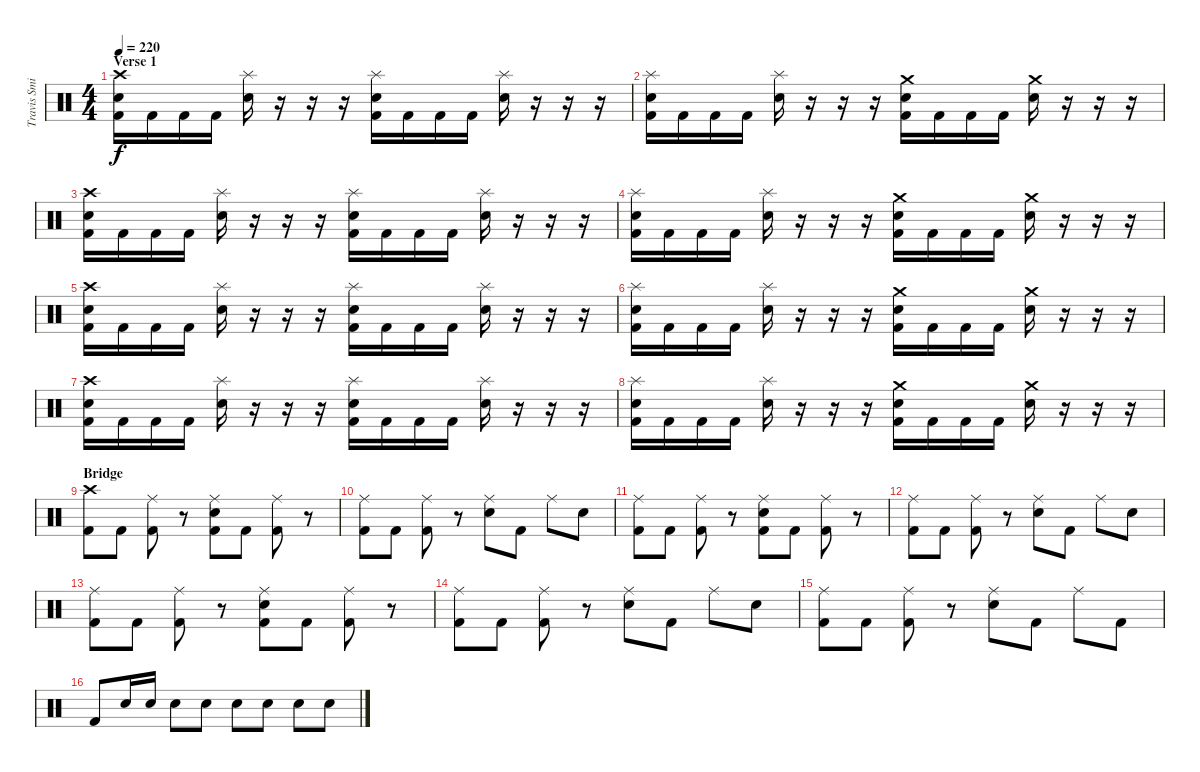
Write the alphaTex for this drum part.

\track ("Travis Smith" "Travis Smi") {instrument percussion}
\staff {score}
\articulation defaults
\ts (4 4)
\section ("" "Verse 1")
\tempo 220
\clef neutral
\ks c
("Crash high (hit)" "Electric Snare (hit)" "Kick (hit) 2").16{dy f} "Kick (hit) 2".16 "Kick (hit) 2".16 "Kick (hit) 2".16 ("Splash (hit)" "Electric Snare (hit)").16 r.16 r.16 r.16 ("Splash (hit)" "Electric Snare (hit)" "Kick (hit) 2").16 "Kick (hit) 2".16 "Kick (hit) 2".16 "Kick (hit) 2".16 ("Splash (hit)" "Electric Snare (hit)").16 r.16 r.16 r.16 |
("Splash (hit)" "Electric Snare (hit)" "Kick (hit) 2").16 "Kick (hit) 2".16 "Kick (hit) 2".16 "Kick (hit) 2".16 ("Splash (hit)" "Electric Snare (hit)").16 r.16 r.16 r.16 ("Crash medium (hit)" "Electric Snare (hit)" "Kick (hit) 2").16 "Kick (hit) 2".16 "Kick (hit) 2".16 "Kick (hit) 2".16 ("Crash medium (hit)" "Electric Snare (hit)").16 r.16 r.16 r.16 |
("Crash high (hit)" "Electric Snare (hit)" "Kick (hit) 2").16 "Kick (hit) 2".16 "Kick (hit) 2".16 "Kick (hit) 2".16 ("Splash (hit)" "Electric Snare (hit)").16 r.16 r.16 r.16 ("Splash (hit)" "Electric Snare (hit)" "Kick (hit) 2").16 "Kick (hit) 2".16 "Kick (hit) 2".16 "Kick (hit) 2".16 ("Splash (hit)" "Electric Snare (hit)").16 r.16 r.16 r.16 |
("Splash (hit)" "Electric Snare (hit)" "Kick (hit) 2").16 "Kick (hit) 2".16 "Kick (hit) 2".16 "Kick (hit) 2".16 ("Splash (hit)" "Electric Snare (hit)").16 r.16 r.16 r.16 ("Crash medium (hit)" "Electric Snare (hit)" "Kick (hit) 2").16 "Kick (hit) 2".16 "Kick (hit) 2".16 "Kick (hit) 2".16 ("Crash medium (hit)" "Electric Snare (hit)").16 r.16 r.16 r.16 |
("Crash high (hit)" "Electric Snare (hit)" "Kick (hit) 2").16 "Kick (hit) 2".16 "Kick (hit) 2".16 "Kick (hit) 2".16 ("Splash (hit)" "Electric Snare (hit)").16 r.16 r.16 r.16 ("Splash (hit)" "Electric Snare (hit)" "Kick (hit) 2").16 "Kick (hit) 2".16 "Kick (hit) 2".16 "Kick (hit) 2".16 ("Splash (hit)" "Electric Snare (hit)").16 r.16 r.16 r.16 |
("Splash (hit)" "Electric Snare (hit)" "Kick (hit) 2").16 "Kick (hit) 2".16 "Kick (hit) 2".16 "Kick (hit) 2".16 ("Splash (hit)" "Electric Snare (hit)").16 r.16 r.16 r.16 ("Crash medium (hit)" "Electric Snare (hit)" "Kick (hit) 2").16 "Kick (hit) 2".16 "Kick (hit) 2".16 "Kick (hit) 2".16 ("Crash medium (hit)" "Electric Snare (hit)").16 r.16 r.16 r.16 |
("Crash high (hit)" "Electric Snare (hit)" "Kick (hit) 2").16 "Kick (hit) 2".16 "Kick (hit) 2".16 "Kick (hit) 2".16 ("Splash (hit)" "Electric Snare (hit)").16 r.16 r.16 r.16 ("Splash (hit)" "Electric Snare (hit)" "Kick (hit) 2").16 "Kick (hit) 2".16 "Kick (hit) 2".16 "Kick (hit) 2".16 ("Splash (hit)" "Electric Snare (hit)").16 r.16 r.16 r.16 |
("Splash (hit)" "Electric Snare (hit)" "Kick (hit) 2").16 "Kick (hit) 2".16 "Kick (hit) 2".16 "Kick (hit) 2".16 ("Splash (hit)" "Electric Snare (hit)").16 r.16 r.16 r.16 ("Crash medium (hit)" "Electric Snare (hit)" "Kick (hit) 2").16 "Kick (hit) 2".16 "Kick (hit) 2".16 "Kick (hit) 2".16 ("Crash medium (hit)" "Electric Snare (hit)").16 r.16 r.16 r.16 |
\section ("" "Bridge")
("Crash high (hit)" "Kick (hit) 2").8 "Kick (hit) 2".8 ("Ride (middle)" "Kick (hit) 2").8 r.8 ("Ride (middle)" "Electric Snare (hit)" "Kick (hit) 2").8 "Kick (hit) 2".8 ("Ride (middle)" "Kick (hit) 2").8 r.8 |
("Ride (middle)" "Kick (hit) 2").8 "Kick (hit) 2".8 ("Ride (middle)" "Kick (hit) 2").8 r.8 ("Ride (middle)" "Electric Snare (hit)").8 "Kick (hit) 2".8 "Ride (middle)".8 "Electric Snare (hit)".8 |
("Ride (middle)" "Kick (hit) 2").8 "Kick (hit) 2".8 ("Ride (middle)" "Kick (hit) 2").8 r.8 ("Ride (middle)" "Electric Snare (hit)" "Kick (hit) 2").8 "Kick (hit) 2".8 ("Ride (middle)" "Kick (hit) 2").8 r.8 |
("Ride (middle)" "Kick (hit) 2").8 "Kick (hit) 2".8 ("Ride (middle)" "Kick (hit) 2").8 r.8 ("Ride (middle)" "Electric Snare (hit)").8 "Kick (hit) 2".8 "Ride (middle)".8 "Electric Snare (hit)".8 |
("Ride (middle)" "Kick (hit) 2").8 "Kick (hit) 2".8 ("Ride (middle)" "Kick (hit) 2").8 r.8 ("Ride (middle)" "Electric Snare (hit)" "Kick (hit) 2").8 "Kick (hit) 2".8 ("Ride (middle)" "Kick (hit) 2").8 r.8 |
("Ride (middle)" "Kick (hit) 2").8 "Kick (hit) 2".8 ("Ride (middle)" "Kick (hit) 2").8 r.8 ("Ride (middle)" "Electric Snare (hit)").8 "Kick (hit) 2".8 "Ride (middle)".8 "Electric Snare (hit)".8 |
("Ride (middle)" "Kick (hit) 2").8 "Kick (hit) 2".8 ("Ride (middle)" "Kick (hit) 2").8 r.8 ("Ride (middle)" "Electric Snare (hit)").8 "Kick (hit) 2".8 "Ride (middle)".8 "Kick (hit) 2".8 |
"Kick (hit) 2".8 "Electric Snare (hit)".16 "Electric Snare (hit)".16 "Electric Snare (hit)".8 "Electric Snare (hit)".8 "Electric Snare (hit)".8 "Electric Snare (hit)".8 "Electric Snare (hit)".8 "Electric Snare (hit)".8
